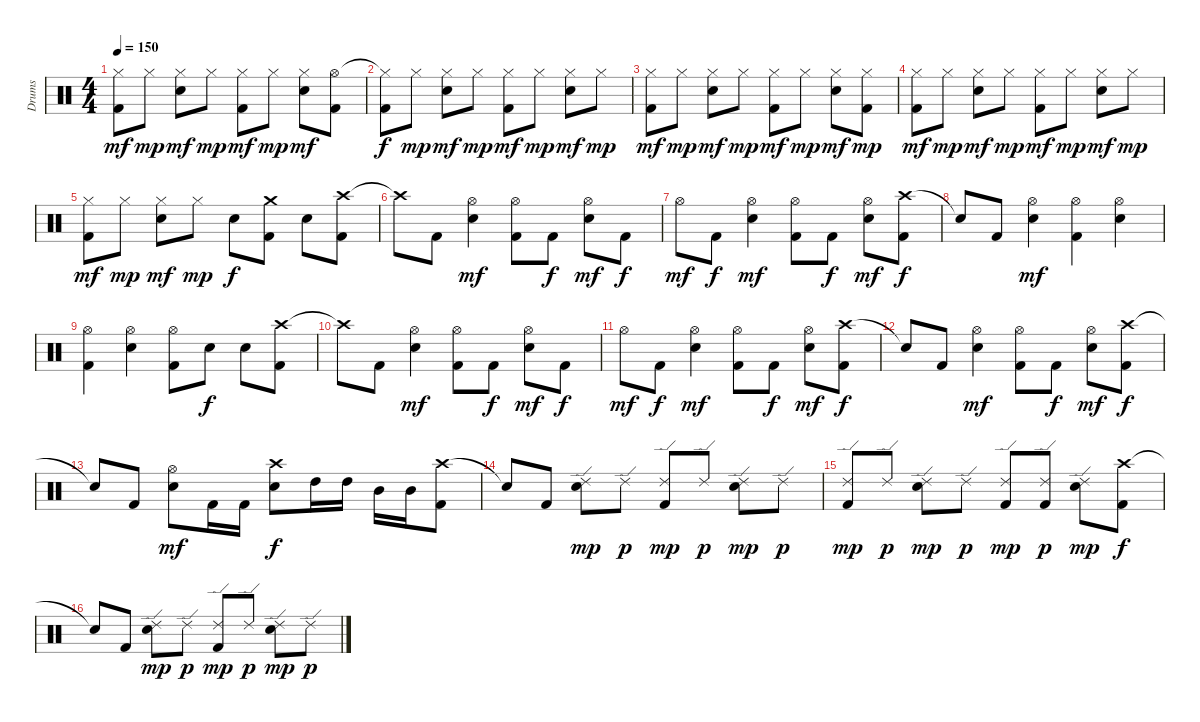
\track ("Drums" "Drums") {instrument percussion}
\staff {score}
\articulation defaults
\ts (4 4)
\tempo 150
\clef neutral
\ks c
("Hi-Hat (closed)" "Kick (hit) 2").8{dy mf} "Hi-Hat (closed)".8{dy mp} ("Hi-Hat (closed)" "Electric Snare (hit)").8{dy mf} "Hi-Hat (closed)".8{dy mp} ("Hi-Hat (closed)" "Kick (hit) 2").8{dy mf} "Hi-Hat (closed)".8{dy mp} ("Hi-Hat (closed)" "Electric Snare (hit)").8{dy mf} ("Hi-Hat (open)" "Kick (hit) 2").8 |
("Hi-Hat (closed)"{t} "Kick (hit) 2").8{dy f} "Hi-Hat (closed)".8{dy mp} ("Hi-Hat (closed)" "Electric Snare (hit)").8{dy mf} "Hi-Hat (closed)".8{dy mp} ("Hi-Hat (closed)" "Kick (hit) 2").8{dy mf} "Hi-Hat (closed)".8{dy mp} ("Hi-Hat (closed)" "Electric Snare (hit)").8{dy mf} "Hi-Hat (closed)".8{dy mp} |
("Hi-Hat (closed)" "Kick (hit) 2").8{dy mf} "Hi-Hat (closed)".8{dy mp} ("Hi-Hat (closed)" "Electric Snare (hit)").8{dy mf} "Hi-Hat (closed)".8{dy mp} ("Hi-Hat (closed)" "Kick (hit) 2").8{dy mf} "Hi-Hat (closed)".8{dy mp} ("Hi-Hat (closed)" "Electric Snare (hit)").8{dy mf} ("Hi-Hat (closed)" "Kick (hit) 2").8{dy mp} |
("Hi-Hat (closed)" "Kick (hit) 2").8{dy mf} "Hi-Hat (closed)".8{dy mp} ("Hi-Hat (closed)" "Electric Snare (hit)").8{dy mf} "Hi-Hat (closed)".8{dy mp} ("Hi-Hat (closed)" "Kick (hit) 2").8{dy mf} "Hi-Hat (closed)".8{dy mp} ("Hi-Hat (closed)" "Electric Snare (hit)").8{dy mf} "Hi-Hat (closed)".8{dy mp} |
("Hi-Hat (closed)" "Kick (hit) 2").8{dy mf} "Hi-Hat (closed)".8{dy mp} ("Hi-Hat (closed)" "Electric Snare (hit)").8{dy mf} "Hi-Hat (closed)".8{dy mp} "Electric Snare (hit)".8{dy f} ("Crash medium (hit)" "Kick (hit) 2").8 "Electric Snare (hit)".8 ("Crash high (hit)" "Kick (hit) 2").8 |
"Crash high (hit)"{t}.8 "Kick (hit) 2".8 ("Hi-Hat (open)" "Electric Snare (hit)").4{dy mf} ("Hi-Hat (open)" "Kick (hit) 2").8 "Kick (hit) 2".8{dy f} ("Hi-Hat (open)" "Electric Snare (hit)").8{dy mf} "Kick (hit) 2".8{dy f} |
"Hi-Hat (open)".8{dy mf} "Kick (hit) 2".8{dy f} ("Hi-Hat (open)" "Electric Snare (hit)").4{dy mf} ("Hi-Hat (open)" "Kick (hit) 2").8 "Kick (hit) 2".8{dy f} ("Hi-Hat (open)" "Electric Snare (hit)").8{dy mf} ("Crash high (hit)" "Kick (hit) 2").8{dy f} |
"Snare (hit)"{t}.8 "Kick (hit) 2".8 ("Hi-Hat (open)" "Electric Snare (hit)").4{dy mf} ("Hi-Hat (open)" "Kick (hit) 2").4 ("Hi-Hat (open)" "Electric Snare (hit)").4 |
("Hi-Hat (open)" "Kick (hit) 2").4 ("Hi-Hat (open)" "Electric Snare (hit)").4 ("Hi-Hat (open)" "Kick (hit) 2").8 "Electric Snare (hit)".8{dy f} "Electric Snare (hit)".8 ("Crash high (hit)" "Kick (hit) 2").8 |
"Crash high (hit)"{t}.8 "Kick (hit) 2".8 ("Hi-Hat (open)" "Electric Snare (hit)").4{dy mf} ("Hi-Hat (open)" "Kick (hit) 2").8 "Kick (hit) 2".8{dy f} ("Hi-Hat (open)" "Electric Snare (hit)").8{dy mf} "Kick (hit) 2".8{dy f} |
"Hi-Hat (open)".8{dy mf} "Kick (hit) 2".8{dy f} ("Hi-Hat (open)" "Electric Snare (hit)").4{dy mf} ("Hi-Hat (open)" "Kick (hit) 2").8 "Kick (hit) 2".8{dy f} ("Hi-Hat (open)" "Electric Snare (hit)").8{dy mf} ("Crash high (hit)" "Kick (hit) 2").8{dy f} |
"Snare (hit)"{t}.8 "Kick (hit) 2".8 ("Hi-Hat (open)" "Electric Snare (hit)").4{dy mf} ("Hi-Hat (open)" "Kick (hit) 2").8 "Kick (hit) 2".8{dy f} ("Hi-Hat (open)" "Electric Snare (hit)").8{dy mf} ("Crash high (hit)" "Kick (hit) 2").8{dy f} |
"Snare (hit)"{t}.8 "Kick (hit) 2".8 ("Hi-Hat (open)" "Electric Snare (hit)").8{dy mf} "Kick (hit) 2".16 "Kick (hit) 2".16 ("Crash high (hit)" "Electric Snare (hit)").8{dy f} "High Tom (hit)".16 "High Tom (hit)".16 "Mid Tom (hit)".16 "Mid Tom (hit)".16 ("Crash high (hit)" "Kick (hit) 2").8 |
"Snare (hit)"{t}.8 "Kick (hit) 2".8 ("Ride (edge) 2" "Electric Snare (hit)").8{dy mp} "Ride (edge) 2".8{dy p} ("Ride (edge) 2" "Kick (hit) 2").8{dy mp} "Ride (edge) 2".8{dy p} ("Ride (edge) 2" "Electric Snare (hit)").8{dy mp} "Ride (edge) 2".8{dy p} |
("Ride (edge) 2" "Kick (hit) 2").8{dy mp} "Ride (edge) 2".8{dy p} ("Ride (edge) 2" "Electric Snare (hit)").8{dy mp} "Ride (edge) 2".8{dy p} ("Ride (edge) 2" "Kick (hit) 2").8{dy mp} ("Ride (edge) 2" "Kick (hit) 2").8{dy p} ("Ride (edge) 2" "Electric Snare (hit)").8{dy mp} ("Crash high (hit)" "Kick (hit) 2").8{dy f} |
"Snare (hit)"{t}.8 "Kick (hit) 2".8 ("Ride (edge) 2" "Electric Snare (hit)").8{dy mp} "Ride (edge) 2".8{dy p} ("Ride (edge) 2" "Kick (hit) 2").8{dy mp} "Ride (edge) 2".8{dy p} ("Ride (edge) 2" "Electric Snare (hit)").8{dy mp} "Ride (edge) 2".8{dy p}
